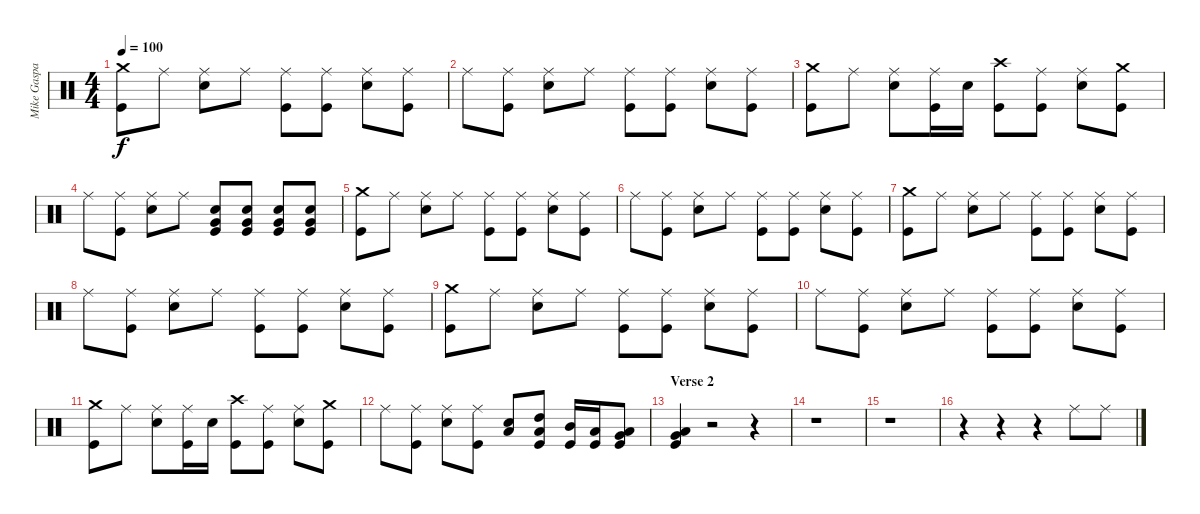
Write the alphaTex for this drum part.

\track ("Mike Gaspar" "Mike Gaspa") {instrument percussion}
\staff {score}
\articulation defaults
\ts (4 4)
\tempo 100
\clef neutral
\ks c
("Crash medium (hit)" "Kick (hit)").8{dy f} "Ride (middle)".8 ("Ride (middle)" "Electric Snare (hit)").8 "Ride (middle)".8 ("Ride (middle)" "Kick (hit)").8 ("Ride (middle)" "Kick (hit)").8 ("Ride (middle)" "Electric Snare (hit)").8 ("Ride (middle)" "Kick (hit)").8 |
"Ride (middle)".8 ("Ride (middle)" "Kick (hit)").8 ("Ride (middle)" "Electric Snare (hit)").8 "Ride (middle)".8 ("Ride (middle)" "Kick (hit)").8 ("Ride (middle)" "Kick (hit)").8 ("Ride (middle)" "Electric Snare (hit)").8 ("Ride (middle)" "Kick (hit)").8 |
("Crash medium (hit)" "Kick (hit)").8 "Ride (middle)".8 ("Ride (middle)" "Electric Snare (hit)").8 ("Ride (middle)" "Kick (hit)").16 "Electric Snare (hit)".16 ("Crash high (hit)" "Kick (hit)").8 ("Ride (middle)" "Kick (hit)").8 ("Ride (middle)" "Electric Snare (hit)").8 ("Crash medium (hit)" "Kick (hit)").8 |
"Ride (middle)".8 ("Ride (middle)" "Kick (hit)").8 ("Ride (middle)" "Electric Snare (hit)").8 "Ride (middle)".8 ("Electric Snare (hit)" "Very Low Tom (hit)" "Kick (hit)").8 ("Electric Snare (hit)" "Very Low Tom (hit)" "Kick (hit)").8 ("Electric Snare (hit)" "Very Low Tom (hit)" "Kick (hit)").8 ("Electric Snare (hit)" "Very Low Tom (hit)" "Kick (hit)").8 |
("Crash medium (hit)" "Kick (hit)").8 "Ride (middle)".8 ("Ride (middle)" "Electric Snare (hit)").8 "Ride (middle)".8 ("Ride (middle)" "Kick (hit)").8 ("Ride (middle)" "Kick (hit)").8 ("Ride (middle)" "Electric Snare (hit)").8 ("Ride (middle)" "Kick (hit)").8 |
"Ride (middle)".8 ("Ride (middle)" "Kick (hit)").8 ("Ride (middle)" "Electric Snare (hit)").8 "Ride (middle)".8 ("Ride (middle)" "Kick (hit)").8 ("Ride (middle)" "Kick (hit)").8 ("Ride (middle)" "Electric Snare (hit)").8 ("Ride (middle)" "Kick (hit)").8 |
("Crash medium (hit)" "Kick (hit)").8 "Ride (middle)".8 ("Ride (middle)" "Electric Snare (hit)").8 "Ride (middle)".8 ("Ride (middle)" "Kick (hit)").8 ("Ride (middle)" "Kick (hit)").8 ("Ride (middle)" "Electric Snare (hit)").8 ("Ride (middle)" "Kick (hit)").8 |
"Ride (middle)".8 ("Ride (middle)" "Kick (hit)").8 ("Ride (middle)" "Electric Snare (hit)").8 "Ride (middle)".8 ("Ride (middle)" "Kick (hit)").8 ("Ride (middle)" "Kick (hit)").8 ("Ride (middle)" "Electric Snare (hit)").8 ("Ride (middle)" "Kick (hit)").8 |
("Crash medium (hit)" "Kick (hit)").8 "Ride (middle)".8 ("Ride (middle)" "Electric Snare (hit)").8 "Ride (middle)".8 ("Ride (middle)" "Kick (hit)").8 ("Ride (middle)" "Kick (hit)").8 ("Ride (middle)" "Electric Snare (hit)").8 ("Ride (middle)" "Kick (hit)").8 |
"Ride (middle)".8 ("Ride (middle)" "Kick (hit)").8 ("Ride (middle)" "Electric Snare (hit)").8 "Ride (middle)".8 ("Ride (middle)" "Kick (hit)").8 ("Ride (middle)" "Kick (hit)").8 ("Ride (middle)" "Electric Snare (hit)").8 ("Ride (middle)" "Kick (hit)").8 |
("Crash medium (hit)" "Kick (hit)").8 "Ride (middle)".8 ("Ride (middle)" "Electric Snare (hit)").8 ("Ride (middle)" "Kick (hit)").16 "Electric Snare (hit)".16 ("Crash high (hit)" "Kick (hit)").8 ("Ride (middle)" "Kick (hit)").8 ("Ride (middle)" "Electric Snare (hit)").8 ("Crash medium (hit)" "Kick (hit)").8 |
"Ride (middle)".8 ("Ride (middle)" "Kick (hit)").8 ("Ride (middle)" "Electric Snare (hit)").8 ("Ride (middle)" "Kick (hit)").8 ("Low Tom (hit)" "Electric Snare (hit)").8 ("High Tom (hit)" "Low Tom (hit)" "Kick (hit)").8 ("Mid Tom (hit)" "Kick (hit)").16 ("Low Tom (hit)" "Kick (hit)").16 ("Very Low Tom (hit)" "Low Tom (hit)" "Kick (hit)").8 |
\section ("" "Verse 2")
("Very Low Tom (hit)" "Low Tom (hit)" "Kick (hit)").4 r.2 r.4 |
r.1 |
r.1 |
r.4 r.4 r.4 "Ride (middle)".8 "Ride (middle)".8
